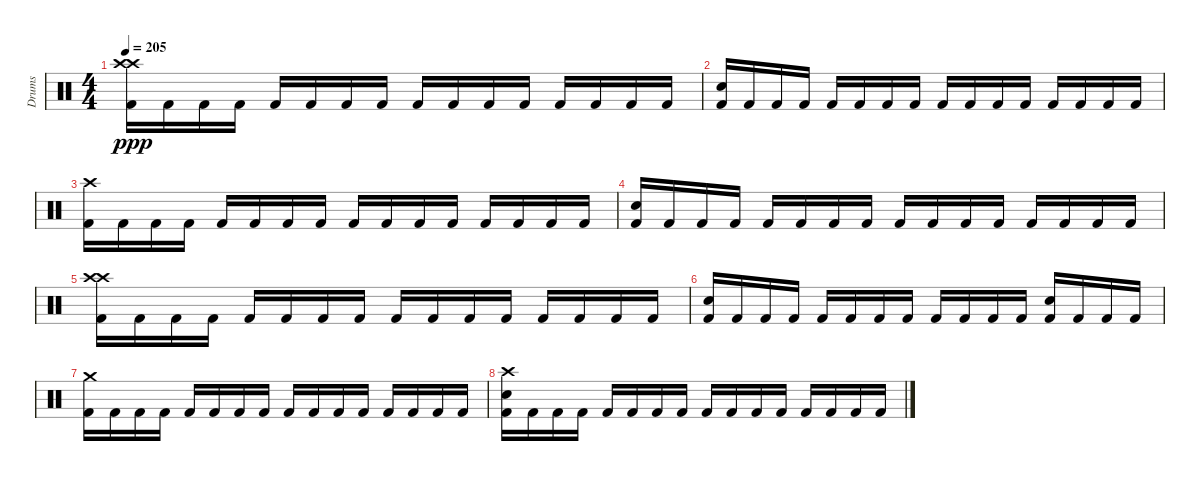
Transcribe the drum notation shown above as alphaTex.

\track ("Drums" "Drums") {instrument percussion}
\staff {score}
\articulation defaults
\ts (4 4)
\tempo 205
\clef neutral
\ks c
("Crash high (hit)" "Crash high (hit)" "Kick (hit) 2").16{dy ppp} "Kick (hit) 2".16 "Kick (hit) 2".16 "Kick (hit) 2".16 "Kick (hit) 2".16 "Kick (hit) 2".16 "Kick (hit) 2".16 "Kick (hit) 2".16 "Kick (hit) 2".16 "Kick (hit) 2".16 "Kick (hit) 2".16 "Kick (hit) 2".16 "Kick (hit) 2".16 "Kick (hit) 2".16 "Kick (hit) 2".16 "Kick (hit) 2".16 |
("Kick (hit) 2" "Snare (hit) 2").16 "Kick (hit) 2".16 "Kick (hit) 2".16 "Kick (hit) 2".16 "Kick (hit) 2".16 "Kick (hit) 2".16 "Kick (hit) 2".16 "Kick (hit) 2".16 "Kick (hit) 2".16 "Kick (hit) 2".16 "Kick (hit) 2".16 "Kick (hit) 2".16 "Kick (hit) 2".16 "Kick (hit) 2".16 "Kick (hit) 2".16 "Kick (hit) 2".16 |
("Kick (hit) 2" "Crash high (hit)").16 "Kick (hit) 2".16 "Kick (hit) 2".16 "Kick (hit) 2".16 "Kick (hit) 2".16 "Kick (hit) 2".16 "Kick (hit) 2".16 "Kick (hit) 2".16 "Kick (hit) 2".16 "Kick (hit) 2".16 "Kick (hit) 2".16 "Kick (hit) 2".16 "Kick (hit) 2".16 "Kick (hit) 2".16 "Kick (hit) 2".16 "Kick (hit) 2".16 |
("Kick (hit) 2" "Snare (hit) 2").16 "Kick (hit) 2".16 "Kick (hit) 2".16 "Kick (hit) 2".16 "Kick (hit) 2".16 "Kick (hit) 2".16 "Kick (hit) 2".16 "Kick (hit) 2".16 "Kick (hit) 2".16 "Kick (hit) 2".16 "Kick (hit) 2".16 "Kick (hit) 2".16 "Kick (hit) 2".16 "Kick (hit) 2".16 "Kick (hit) 2".16 "Kick (hit) 2".16 |
("Crash high (hit)" "Crash high (hit)" "Kick (hit) 2").16 "Kick (hit) 2".16 "Kick (hit) 2".16 "Kick (hit) 2".16 "Kick (hit) 2".16 "Kick (hit) 2".16 "Kick (hit) 2".16 "Kick (hit) 2".16 "Kick (hit) 2".16 "Kick (hit) 2".16 "Kick (hit) 2".16 "Kick (hit) 2".16 "Kick (hit) 2".16 "Kick (hit) 2".16 "Kick (hit) 2".16 "Kick (hit) 2".16 |
("Kick (hit) 2" "Snare (hit) 2").16 "Kick (hit) 2".16 "Kick (hit) 2".16 "Kick (hit) 2".16 "Kick (hit) 2".16 "Kick (hit) 2".16 "Kick (hit) 2".16 "Kick (hit) 2".16 "Kick (hit) 2".16 "Kick (hit) 2".16 "Kick (hit) 2".16 "Kick (hit) 2".16 ("Kick (hit) 2" "Snare (hit) 2").16 "Kick (hit) 2".16 "Kick (hit) 2".16 "Kick (hit) 2".16 |
("Crash medium (hit)" "Kick (hit) 2").16 "Kick (hit) 2".16 "Kick (hit) 2".16 "Kick (hit) 2".16 "Kick (hit) 2".16 "Kick (hit) 2".16 "Kick (hit) 2".16 "Kick (hit) 2".16 "Kick (hit) 2".16 "Kick (hit) 2".16 "Kick (hit) 2".16 "Kick (hit) 2".16 "Kick (hit) 2".16 "Kick (hit) 2".16 "Kick (hit) 2".16 "Kick (hit) 2".16 |
("Crash high (hit)" "Kick (hit) 2" "Snare (hit) 2").16 "Kick (hit) 2".16 "Kick (hit) 2".16 "Kick (hit) 2".16 "Kick (hit) 2".16 "Kick (hit) 2".16 "Kick (hit) 2".16 "Kick (hit) 2".16 "Kick (hit) 2".16 "Kick (hit) 2".16 "Kick (hit) 2".16 "Kick (hit) 2".16 "Kick (hit) 2".16 "Kick (hit) 2".16 "Kick (hit) 2".16 "Kick (hit) 2".16
